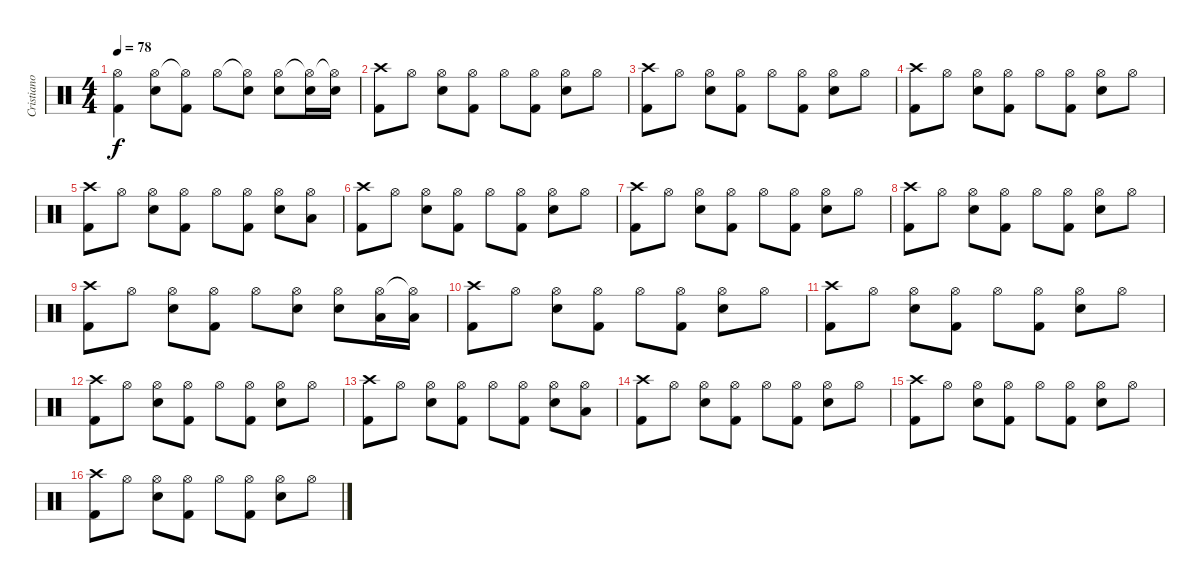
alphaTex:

\track ("Cristiano Mozzati" "Cristiano ") {instrument percussion}
\staff {score}
\articulation defaults
\ts (4 4)
\tempo 78
\clef neutral
\ks c
("Hi-Hat (open)" "Kick (hit) 2").4{dy f} ("Hi-Hat (open)" "Electric Snare (hit)").8 ("Hi-Hat (open)"{t} "Kick (hit) 2").8 "Hi-Hat (open)".8 ("Hi-Hat (open)"{t} "Electric Snare (hit)").8 ("Hi-Hat (open)" "Electric Snare (hit)").8 ("Hi-Hat (open)"{t} "Electric Snare (hit)").16 ("Hi-Hat (open)"{t} "Electric Snare (hit)").16 |
("Crash high (hit)" "Kick (hit) 2").8 "Hi-Hat (open)".8 ("Hi-Hat (open)" "Electric Snare (hit)").8 ("Hi-Hat (open)" "Kick (hit) 2").8 "Hi-Hat (open)".8 ("Hi-Hat (open)" "Kick (hit) 2").8 ("Hi-Hat (open)" "Electric Snare (hit)").8 "Hi-Hat (open)".8 |
("Crash high (hit)" "Kick (hit) 2").8 "Hi-Hat (open)".8 ("Hi-Hat (open)" "Electric Snare (hit)").8 ("Hi-Hat (open)" "Kick (hit) 2").8 "Hi-Hat (open)".8 ("Hi-Hat (open)" "Kick (hit) 2").8 ("Hi-Hat (open)" "Electric Snare (hit)").8 "Hi-Hat (open)".8 |
("Crash high (hit)" "Kick (hit) 2").8 "Hi-Hat (open)".8 ("Hi-Hat (open)" "Electric Snare (hit)").8 ("Hi-Hat (open)" "Kick (hit) 2").8 "Hi-Hat (open)".8 ("Hi-Hat (open)" "Kick (hit) 2").8 ("Hi-Hat (open)" "Electric Snare (hit)").8 "Hi-Hat (open)".8 |
("Crash high (hit)" "Kick (hit) 2").8 "Hi-Hat (open)".8 ("Hi-Hat (open)" "Electric Snare (hit)").8 ("Hi-Hat (open)" "Kick (hit) 2").8 "Hi-Hat (open)".8 ("Hi-Hat (open)" "Kick (hit) 2").8 ("Hi-Hat (open)" "Electric Snare (hit)").8 ("Hi-Hat (open)" "Low Tom (hit)").8 |
("Crash high (hit)" "Kick (hit) 2").8 "Hi-Hat (open)".8 ("Hi-Hat (open)" "Electric Snare (hit)").8 ("Hi-Hat (open)" "Kick (hit) 2").8 "Hi-Hat (open)".8 ("Hi-Hat (open)" "Kick (hit) 2").8 ("Hi-Hat (open)" "Electric Snare (hit)").8 "Hi-Hat (open)".8 |
("Crash high (hit)" "Kick (hit) 2").8 "Hi-Hat (open)".8 ("Hi-Hat (open)" "Electric Snare (hit)").8 ("Hi-Hat (open)" "Kick (hit) 2").8 "Hi-Hat (open)".8 ("Hi-Hat (open)" "Kick (hit) 2").8 ("Hi-Hat (open)" "Electric Snare (hit)").8 "Hi-Hat (open)".8 |
("Crash high (hit)" "Kick (hit) 2").8 "Hi-Hat (open)".8 ("Hi-Hat (open)" "Electric Snare (hit)").8 ("Hi-Hat (open)" "Kick (hit) 2").8 "Hi-Hat (open)".8 ("Hi-Hat (open)" "Kick (hit) 2").8 ("Hi-Hat (open)" "Electric Snare (hit)").8 "Hi-Hat (open)".8 |
("Crash high (hit)" "Kick (hit) 2").8 "Hi-Hat (open)".8 ("Hi-Hat (open)" "Electric Snare (hit)").8 ("Hi-Hat (open)" "Kick (hit) 2").8 "Hi-Hat (open)".8 ("Hi-Hat (open)" "Electric Snare (hit)").8 ("Hi-Hat (open)" "Electric Snare (hit)").8 ("Hi-Hat (open)" "Low Tom (hit)").16 ("Hi-Hat (open)"{t} "Low Tom (hit)").16 |
("Crash high (hit)" "Kick (hit) 2").8 "Hi-Hat (open)".8 ("Hi-Hat (open)" "Electric Snare (hit)").8 ("Hi-Hat (open)" "Kick (hit) 2").8 "Hi-Hat (open)".8 ("Hi-Hat (open)" "Kick (hit) 2").8 ("Hi-Hat (open)" "Electric Snare (hit)").8 "Hi-Hat (open)".8 |
("Crash high (hit)" "Kick (hit) 2").8 "Hi-Hat (open)".8 ("Hi-Hat (open)" "Electric Snare (hit)").8 ("Hi-Hat (open)" "Kick (hit) 2").8 "Hi-Hat (open)".8 ("Hi-Hat (open)" "Kick (hit) 2").8 ("Hi-Hat (open)" "Electric Snare (hit)").8 "Hi-Hat (open)".8 |
("Crash high (hit)" "Kick (hit) 2").8 "Hi-Hat (open)".8 ("Hi-Hat (open)" "Electric Snare (hit)").8 ("Hi-Hat (open)" "Kick (hit) 2").8 "Hi-Hat (open)".8 ("Hi-Hat (open)" "Kick (hit) 2").8 ("Hi-Hat (open)" "Electric Snare (hit)").8 "Hi-Hat (open)".8 |
("Crash high (hit)" "Kick (hit) 2").8 "Hi-Hat (open)".8 ("Hi-Hat (open)" "Electric Snare (hit)").8 ("Hi-Hat (open)" "Kick (hit) 2").8 "Hi-Hat (open)".8 ("Hi-Hat (open)" "Kick (hit) 2").8 ("Hi-Hat (open)" "Electric Snare (hit)").8 ("Hi-Hat (open)" "Low Tom (hit)").8 |
("Crash high (hit)" "Kick (hit) 2").8 "Hi-Hat (open)".8 ("Hi-Hat (open)" "Electric Snare (hit)").8 ("Hi-Hat (open)" "Kick (hit) 2").8 "Hi-Hat (open)".8 ("Hi-Hat (open)" "Kick (hit) 2").8 ("Hi-Hat (open)" "Electric Snare (hit)").8 "Hi-Hat (open)".8 |
("Crash high (hit)" "Kick (hit) 2").8 "Hi-Hat (open)".8 ("Hi-Hat (open)" "Electric Snare (hit)").8 ("Hi-Hat (open)" "Kick (hit) 2").8 "Hi-Hat (open)".8 ("Hi-Hat (open)" "Kick (hit) 2").8 ("Hi-Hat (open)" "Electric Snare (hit)").8 "Hi-Hat (open)".8 |
("Crash high (hit)" "Kick (hit) 2").8 "Hi-Hat (open)".8 ("Hi-Hat (open)" "Electric Snare (hit)").8 ("Hi-Hat (open)" "Kick (hit) 2").8 "Hi-Hat (open)".8 ("Hi-Hat (open)" "Kick (hit) 2").8 ("Hi-Hat (open)" "Electric Snare (hit)").8 "Hi-Hat (open)".8
